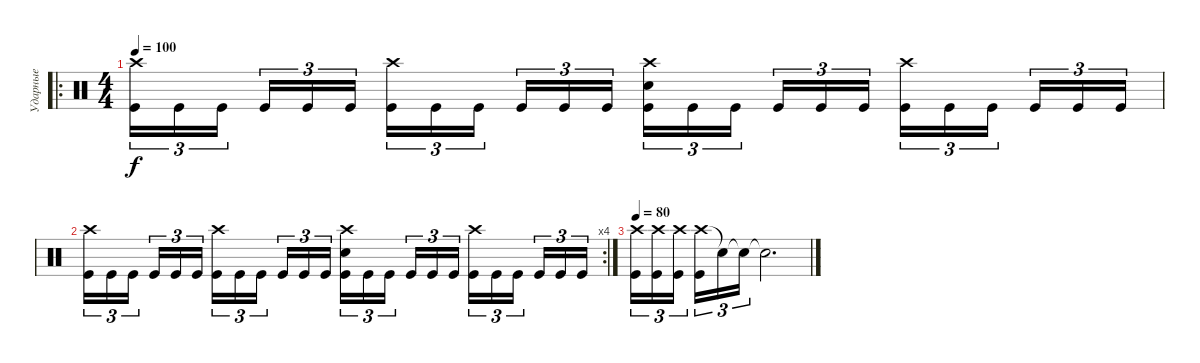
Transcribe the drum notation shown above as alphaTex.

\track ("Ударные" "Ударные") {instrument percussion}
\staff {score}
\articulation defaults
\ro
\ts (4 4)
\tempo 100
\clef neutral
\ks c
("Crash high (hit)" "Kick (hit)").16{tu (3 2) dy f} "Kick (hit)".16{tu (3 2)} "Kick (hit)".16{tu (3 2) beam splitsecondary} "Kick (hit)".16{tu (3 2)} "Kick (hit)".16{tu (3 2)} "Kick (hit)".16{tu (3 2)} ("Crash high (hit)" "Kick (hit)").16{tu (3 2)} "Kick (hit)".16{tu (3 2)} "Kick (hit)".16{tu (3 2) beam splitsecondary} "Kick (hit)".16{tu (3 2)} "Kick (hit)".16{tu (3 2)} "Kick (hit)".16{tu (3 2)} ("Crash high (hit)" "Snare (hit) 2" "Kick (hit)").16{tu (3 2)} "Kick (hit)".16{tu (3 2)} "Kick (hit)".16{tu (3 2) beam splitsecondary} "Kick (hit)".16{tu (3 2)} "Kick (hit)".16{tu (3 2)} "Kick (hit)".16{tu (3 2)} ("Crash high (hit)" "Kick (hit)").16{tu (3 2)} "Kick (hit)".16{tu (3 2)} "Kick (hit)".16{tu (3 2) beam splitsecondary} "Kick (hit)".16{tu (3 2)} "Kick (hit)".16{tu (3 2)} "Kick (hit)".16{tu (3 2)} |
\rc 4
("Crash high (hit)" "Kick (hit)").16{tu (3 2)} "Kick (hit)".16{tu (3 2)} "Kick (hit)".16{tu (3 2) beam splitsecondary} "Kick (hit)".16{tu (3 2)} "Kick (hit)".16{tu (3 2)} "Kick (hit)".16{tu (3 2)} ("Crash high (hit)" "Kick (hit)").16{tu (3 2)} "Kick (hit)".16{tu (3 2)} "Kick (hit)".16{tu (3 2) beam splitsecondary} "Kick (hit)".16{tu (3 2)} "Kick (hit)".16{tu (3 2)} "Kick (hit)".16{tu (3 2)} ("Crash high (hit)" "Snare (hit) 2" "Kick (hit)").16{tu (3 2)} "Kick (hit)".16{tu (3 2)} "Kick (hit)".16{tu (3 2) beam splitsecondary} "Kick (hit)".16{tu (3 2)} "Kick (hit)".16{tu (3 2)} "Kick (hit)".16{tu (3 2)} ("Crash high (hit)" "Kick (hit)").16{tu (3 2)} "Kick (hit)".16{tu (3 2)} "Kick (hit)".16{tu (3 2) beam splitsecondary} "Kick (hit)".16{tu (3 2)} "Kick (hit)".16{tu (3 2)} "Kick (hit)".16{tu (3 2)} |
\tempo 80
("Crash high (hit)" "Kick (hit)").16{tu (3 2)} ("Crash high (hit)" "Kick (hit)").16{tu (3 2)} ("Crash high (hit)" "Kick (hit)").16{tu (3 2) beam splitsecondary} ("Crash high (hit)" "Kick (hit)").16{tu (3 2)} "Snare (hit)"{t}.16{tu (3 2)} "Snare (hit)"{t}.16{tu (3 2)} "Snare (hit)"{t}.2{d}
